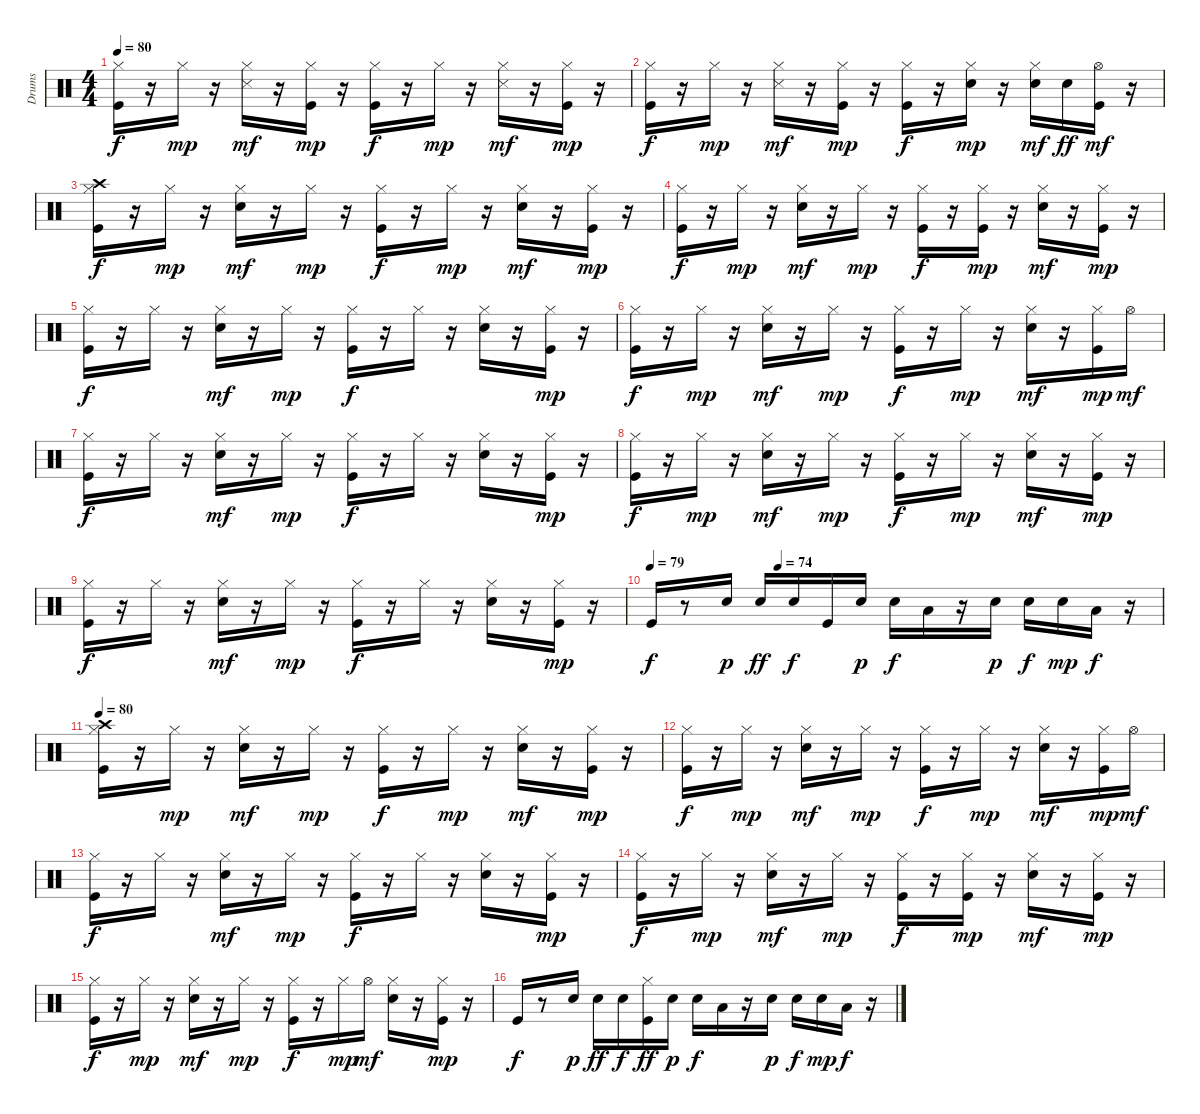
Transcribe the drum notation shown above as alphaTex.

\track ("Drums  " "Drums  ") {instrument percussion}
\staff {score}
\articulation defaults
\ts (4 4)
\tempo 80
\clef neutral
\ks c
("Kick (hit)" "Hi-Hat (closed)").16{dy f} r.16 "Hi-Hat (closed)".16{dy mp} r.16 ("Hi-Hat (closed)" "Snare (side stick) 3").16{dy mf} r.16 ("Kick (hit)" "Hi-Hat (closed)").16{dy mp} r.16 ("Kick (hit)" "Hi-Hat (closed)").16{dy f} r.16 "Hi-Hat (closed)".16{dy mp} r.16 ("Hi-Hat (closed)" "Snare (side stick) 3").16{dy mf} r.16 ("Kick (hit)" "Hi-Hat (closed)").16{dy mp} r.16 |
("Kick (hit)" "Hi-Hat (closed)").16{dy f} r.16 "Hi-Hat (closed)".16{dy mp} r.16 ("Hi-Hat (closed)" "Snare (side stick) 3").16{dy mf} r.16 ("Kick (hit)" "Hi-Hat (closed)").16{dy mp} r.16 ("Kick (hit)" "Hi-Hat (closed)").16{dy f} r.16 ("Snare (hit) 2" "Hi-Hat (closed)").16{dy mp} r.16 ("Snare (hit) 2" "Hi-Hat (closed)").16{dy mf} "Snare (hit) 2".16{dy ff} ("Kick (hit)" "Hi-Hat (open)").16{dy mf} r.16 |
("Kick (hit)" "Hi-Hat (closed)" "Crash high (hit)").16{dy f} r.16 "Hi-Hat (closed)".16{dy mp} r.16 ("Snare (hit) 2" "Hi-Hat (closed)").16{dy mf} r.16 "Hi-Hat (closed)".16{dy mp} r.16 ("Kick (hit)" "Hi-Hat (closed)").16{dy f} r.16 "Hi-Hat (closed)".16{dy mp} r.16 ("Snare (hit) 2" "Hi-Hat (closed)").16{dy mf} r.16 ("Kick (hit)" "Hi-Hat (closed)").16{dy mp} r.16 |
("Kick (hit)" "Hi-Hat (closed)").16{dy f} r.16 "Hi-Hat (closed)".16{dy mp} r.16 ("Snare (hit) 2" "Hi-Hat (closed)").16{dy mf} r.16 "Hi-Hat (closed)".16{dy mp} r.16 ("Kick (hit)" "Hi-Hat (closed)").16{dy f} r.16 ("Kick (hit)" "Hi-Hat (closed)").16{dy mp} r.16 ("Snare (hit) 2" "Hi-Hat (closed)").16{dy mf} r.16 ("Kick (hit)" "Hi-Hat (closed)").16{dy mp} r.16 |
("Kick (hit)" "Hi-Hat (closed)").16{dy f} r.16 "Hi-Hat (closed)".16 r.16 ("Snare (hit) 2" "Hi-Hat (closed)").16{dy mf} r.16 "Hi-Hat (closed)".16{dy mp} r.16 ("Kick (hit)" "Hi-Hat (closed)").16{dy f} r.16 "Hi-Hat (closed)".16 r.16 ("Snare (hit) 2" "Hi-Hat (closed)").16 r.16 ("Kick (hit)" "Hi-Hat (closed)").16{dy mp} r.16 |
("Kick (hit)" "Hi-Hat (closed)").16{dy f} r.16 "Hi-Hat (closed)".16{dy mp} r.16 ("Snare (hit) 2" "Hi-Hat (closed)").16{dy mf} r.16 "Hi-Hat (closed)".16{dy mp} r.16 ("Kick (hit)" "Hi-Hat (closed)").16{dy f} r.16 "Hi-Hat (closed)".16{dy mp} r.16 ("Snare (hit) 2" "Hi-Hat (closed)").16{dy mf} r.16 ("Kick (hit)" "Hi-Hat (closed)").16{dy mp} "Hi-Hat (open)".16{dy mf} |
("Kick (hit)" "Hi-Hat (closed)").16{dy f} r.16 "Hi-Hat (closed)".16 r.16 ("Snare (hit) 2" "Hi-Hat (closed)").16{dy mf} r.16 "Hi-Hat (closed)".16{dy mp} r.16 ("Kick (hit)" "Hi-Hat (closed)").16{dy f} r.16 "Hi-Hat (closed)".16 r.16 ("Snare (hit) 2" "Hi-Hat (closed)").16 r.16 ("Kick (hit)" "Hi-Hat (closed)").16{dy mp} r.16 |
("Kick (hit)" "Hi-Hat (closed)").16{dy f} r.16 "Hi-Hat (closed)".16{dy mp} r.16 ("Snare (hit) 2" "Hi-Hat (closed)").16{dy mf} r.16 "Hi-Hat (closed)".16{dy mp} r.16 ("Kick (hit)" "Hi-Hat (closed)").16{dy f} r.16 "Hi-Hat (closed)".16{dy mp} r.16 ("Snare (hit) 2" "Hi-Hat (closed)").16{dy mf} r.16 ("Kick (hit)" "Hi-Hat (closed)").16{dy mp} r.16 |
("Kick (hit)" "Hi-Hat (closed)").16{dy f} r.16 "Hi-Hat (closed)".16 r.16 ("Snare (hit) 2" "Hi-Hat (closed)").16{dy mf} r.16 "Hi-Hat (closed)".16{dy mp} r.16 ("Kick (hit)" "Hi-Hat (closed)").16{dy f} r.16 "Hi-Hat (closed)".16 r.16 ("Snare (hit) 2" "Hi-Hat (closed)").16 r.16 ("Kick (hit)" "Hi-Hat (closed)").16{dy mp} r.16 |
\tempo 79
\tempo (74 0.25)
"Kick (hit)".16{dy f} r.8 "Snare (hit) 2".16{dy p} "Snare (hit) 2".16{dy ff} "Snare (hit) 2".16{dy f} "Kick (hit)".16 "Snare (hit) 2".16{dy p} "Snare (hit) 2".16{dy f} "Low Tom (hit)".16 r.16 "Snare (hit) 2".16{dy p} "Snare (hit) 2".16{dy f} "Snare (hit) 2".16{dy mp} "Low Floor Tom (hit)".16{dy f} r.16 |
\tempo 80
("Kick (hit)" "Hi-Hat (closed)" "Crash high (hit)").16 r.16 "Hi-Hat (closed)".16{dy mp} r.16 ("Snare (hit) 2" "Hi-Hat (closed)").16{dy mf} r.16 "Hi-Hat (closed)".16{dy mp} r.16 ("Kick (hit)" "Hi-Hat (closed)").16{dy f} r.16 "Hi-Hat (closed)".16{dy mp} r.16 ("Snare (hit) 2" "Hi-Hat (closed)").16{dy mf} r.16 ("Kick (hit)" "Hi-Hat (closed)").16{dy mp} r.16 |
("Kick (hit)" "Hi-Hat (closed)").16{dy f} r.16 "Hi-Hat (closed)".16{dy mp} r.16 ("Snare (hit) 2" "Hi-Hat (closed)").16{dy mf} r.16 "Hi-Hat (closed)".16{dy mp} r.16 ("Kick (hit)" "Hi-Hat (closed)").16{dy f} r.16 "Hi-Hat (closed)".16{dy mp} r.16 ("Snare (hit) 2" "Hi-Hat (closed)").16{dy mf} r.16 ("Kick (hit)" "Hi-Hat (closed)").16{dy mp} "Hi-Hat (open)".16{dy mf} |
("Kick (hit)" "Hi-Hat (closed)").16{dy f} r.16 "Hi-Hat (closed)".16 r.16 ("Snare (hit) 2" "Hi-Hat (closed)").16{dy mf} r.16 "Hi-Hat (closed)".16{dy mp} r.16 ("Kick (hit)" "Hi-Hat (closed)").16{dy f} r.16 "Hi-Hat (closed)".16 r.16 ("Snare (hit) 2" "Hi-Hat (closed)").16 r.16 ("Kick (hit)" "Hi-Hat (closed)").16{dy mp} r.16 |
("Kick (hit)" "Hi-Hat (closed)").16{dy f} r.16 "Hi-Hat (closed)".16{dy mp} r.16 ("Snare (hit) 2" "Hi-Hat (closed)").16{dy mf} r.16 "Hi-Hat (closed)".16{dy mp} r.16 ("Kick (hit)" "Hi-Hat (closed)").16{dy f} r.16 ("Kick (hit)" "Hi-Hat (closed)").16{dy mp} r.16 ("Snare (hit) 2" "Hi-Hat (closed)").16{dy mf} r.16 ("Kick (hit)" "Hi-Hat (closed)").16{dy mp} r.16 |
("Kick (hit)" "Hi-Hat (closed)").16{dy f} r.16 "Hi-Hat (closed)".16{dy mp} r.16 ("Snare (hit) 2" "Hi-Hat (closed)").16{dy mf} r.16 "Hi-Hat (closed)".16{dy mp} r.16 ("Kick (hit)" "Hi-Hat (closed)").16{dy f} r.16 "Hi-Hat (closed)".16{dy mp} "Hi-Hat (open)".16{dy mf} ("Snare (hit) 2" "Hi-Hat (closed)").16 r.16 ("Kick (hit)" "Hi-Hat (closed)").16{dy mp} r.16 |
"Kick (hit)".16{dy f} r.8 "Snare (hit) 2".16{dy p} "Snare (hit) 2".16{dy ff} "Snare (hit) 2".16{dy f} ("Kick (hit)" "Hi-Hat (closed)").16{dy ff} "Snare (hit) 2".16{dy p} "Snare (hit) 2".16{dy f} "Low Tom (hit)".16 r.16 "Snare (hit) 2".16{dy p} "Snare (hit) 2".16{dy f} "Snare (hit) 2".16{dy mp} "Low Floor Tom (hit)".16{dy f} r.16
